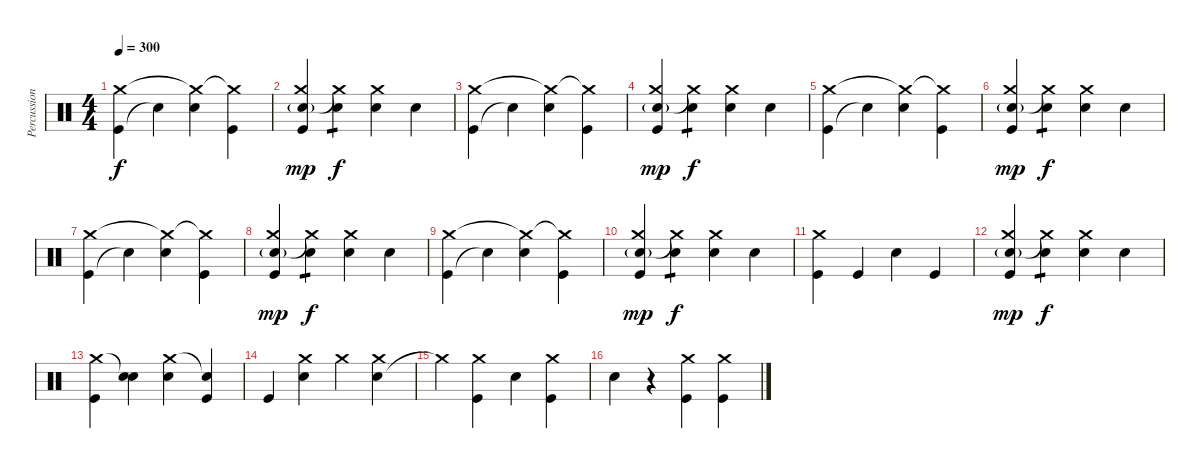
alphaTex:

\track ("Percussion" "Percussion") {instrument percussion}
\staff {score}
\articulation defaults
\ts (4 4)
\tempo 300
\clef neutral
\ks c
("Kick (hit)" "Crash medium (hit)").4{dy f} "Snare (hit)"{t}.4 ("Electric Snare (hit)" "Crash medium (hit)"{t}).4 ("Kick (hit)" "Crash medium (hit)"{t}).4 |
("Kick (hit)" "Electric Snare (hit)"{g} "Crash medium (hit)").4{dy mp} ("Electric Snare (hit)" "Crash medium (hit)"{t}).4{tp 1 dy f} ("Electric Snare (hit)" "Crash medium (hit)").4 "Electric Snare (hit)".4 |
("Kick (hit)" "Crash medium (hit)").4 "Snare (hit)"{t}.4 ("Electric Snare (hit)" "Crash medium (hit)"{t}).4 ("Kick (hit)" "Crash medium (hit)"{t}).4 |
("Kick (hit)" "Electric Snare (hit)"{g} "Crash medium (hit)").4{dy mp} ("Electric Snare (hit)" "Crash medium (hit)"{t}).4{tp 1 dy f} ("Electric Snare (hit)" "Crash medium (hit)").4 "Electric Snare (hit)".4 |
("Kick (hit)" "Crash medium (hit)").4 "Snare (hit)"{t}.4 ("Electric Snare (hit)" "Crash medium (hit)"{t}).4 ("Kick (hit)" "Crash medium (hit)"{t}).4 |
("Kick (hit)" "Electric Snare (hit)"{g} "Crash medium (hit)").4{dy mp} ("Electric Snare (hit)" "Crash medium (hit)"{t}).4{tp 1 dy f} ("Electric Snare (hit)" "Crash medium (hit)").4 "Electric Snare (hit)".4 |
("Kick (hit)" "Crash medium (hit)").4 "Snare (hit)"{t}.4 ("Electric Snare (hit)" "Crash medium (hit)"{t}).4 ("Kick (hit)" "Crash medium (hit)"{t}).4 |
("Kick (hit)" "Electric Snare (hit)"{g} "Crash medium (hit)").4{dy mp} ("Electric Snare (hit)" "Crash medium (hit)"{t}).4{tp 1 dy f} ("Electric Snare (hit)" "Crash medium (hit)").4 "Electric Snare (hit)".4 |
("Kick (hit)" "Crash medium (hit)").4 "Snare (hit)"{t}.4 ("Electric Snare (hit)" "Crash medium (hit)"{t}).4 ("Kick (hit)" "Crash medium (hit)"{t}).4 |
("Kick (hit)" "Electric Snare (hit)"{g} "Crash medium (hit)").4{dy mp} ("Electric Snare (hit)" "Crash medium (hit)"{t}).4{tp 1 dy f} ("Electric Snare (hit)" "Crash medium (hit)").4 "Electric Snare (hit)".4 |
("Kick (hit)" "Crash medium (hit)").4 "Kick (hit)".4 "Electric Snare (hit)".4 "Kick (hit)".4 |
("Kick (hit)" "Electric Snare (hit)"{g} "Crash medium (hit)").4{dy mp} ("Electric Snare (hit)" "Crash medium (hit)"{t}).4{tp 1 dy f} ("Electric Snare (hit)" "Crash medium (hit)").4 "Electric Snare (hit)".4 |
("Kick (hit)" "Crash medium (hit)").4 ("Electric Snare (hit)" "Snare (hit)"{t}).4 ("Electric Snare (hit)" "Crash medium (hit)").4 ("Kick (hit)" "Snare (hit)"{t}).4 |
"Kick (hit)".4 ("Electric Snare (hit)" "Crash medium (hit)").4 "Crash medium (hit)".4 ("Electric Snare (hit)" "Crash medium (hit)").4 |
"Crash medium (hit)"{t}.4 ("Kick (hit)" "Crash medium (hit)").4 "Electric Snare (hit)".4 ("Kick (hit)" "Crash medium (hit)").4 |
"Electric Snare (hit)".4 r.4 ("Kick (hit)" "Crash medium (hit)").4 ("Kick (hit)" "Crash medium (hit)").4
